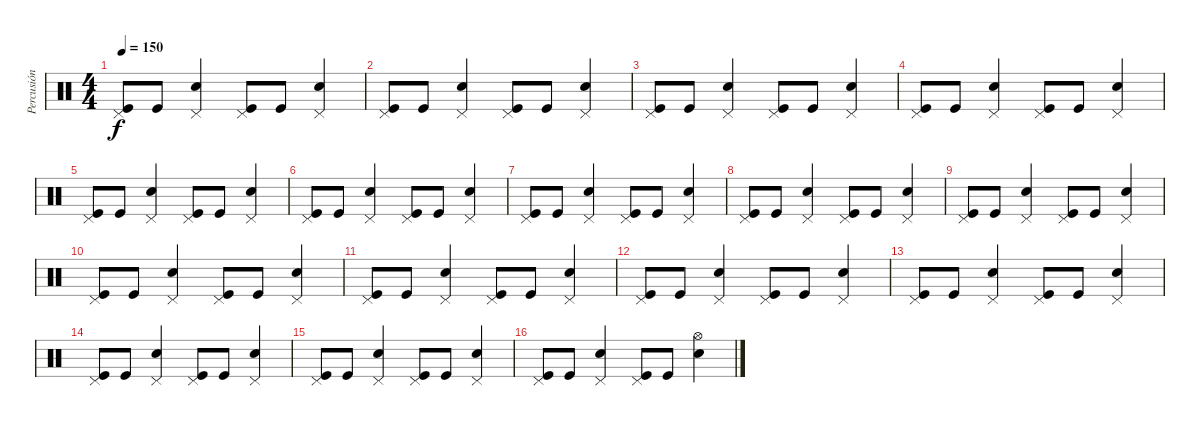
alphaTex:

\track ("Percusión" "Percusión") {instrument percussion}
\staff {score}
\articulation defaults
\ts (4 4)
\tempo 150
\clef neutral
\ks c
("Pedal Hi-Hat (hit)" "Kick (hit)").8{dy f} "Kick (hit)".8 ("Pedal Hi-Hat (hit)" "Snare (hit) 2").4 ("Pedal Hi-Hat (hit)" "Kick (hit)").8 "Kick (hit)".8 ("Pedal Hi-Hat (hit)" "Snare (hit) 2").4 |
("Pedal Hi-Hat (hit)" "Kick (hit)").8 "Kick (hit)".8 ("Pedal Hi-Hat (hit)" "Snare (hit) 2").4 ("Pedal Hi-Hat (hit)" "Kick (hit)").8 "Kick (hit)".8 ("Pedal Hi-Hat (hit)" "Snare (hit) 2").4 |
("Pedal Hi-Hat (hit)" "Kick (hit)").8 "Kick (hit)".8 ("Pedal Hi-Hat (hit)" "Snare (hit) 2").4 ("Pedal Hi-Hat (hit)" "Kick (hit)").8 "Kick (hit)".8 ("Pedal Hi-Hat (hit)" "Snare (hit) 2").4 |
("Pedal Hi-Hat (hit)" "Kick (hit)").8 "Kick (hit)".8 ("Pedal Hi-Hat (hit)" "Snare (hit) 2").4 ("Pedal Hi-Hat (hit)" "Kick (hit)").8 "Kick (hit)".8 ("Pedal Hi-Hat (hit)" "Snare (hit) 2").4 |
("Pedal Hi-Hat (hit)" "Kick (hit)").8 "Kick (hit)".8 ("Pedal Hi-Hat (hit)" "Snare (hit) 2").4 ("Pedal Hi-Hat (hit)" "Kick (hit)").8 "Kick (hit)".8 ("Pedal Hi-Hat (hit)" "Snare (hit) 2").4 |
("Pedal Hi-Hat (hit)" "Kick (hit)").8 "Kick (hit)".8 ("Pedal Hi-Hat (hit)" "Snare (hit) 2").4 ("Pedal Hi-Hat (hit)" "Kick (hit)").8 "Kick (hit)".8 ("Pedal Hi-Hat (hit)" "Snare (hit) 2").4 |
("Pedal Hi-Hat (hit)" "Kick (hit)").8 "Kick (hit)".8 ("Pedal Hi-Hat (hit)" "Snare (hit) 2").4 ("Pedal Hi-Hat (hit)" "Kick (hit)").8 "Kick (hit)".8 ("Pedal Hi-Hat (hit)" "Snare (hit) 2").4 |
("Pedal Hi-Hat (hit)" "Kick (hit)").8 "Kick (hit)".8 ("Pedal Hi-Hat (hit)" "Snare (hit) 2").4 ("Pedal Hi-Hat (hit)" "Kick (hit)").8 "Kick (hit)".8 ("Pedal Hi-Hat (hit)" "Snare (hit) 2").4 |
("Pedal Hi-Hat (hit)" "Kick (hit)").8 "Kick (hit)".8 ("Pedal Hi-Hat (hit)" "Snare (hit) 2").4 ("Pedal Hi-Hat (hit)" "Kick (hit)").8 "Kick (hit)".8 ("Pedal Hi-Hat (hit)" "Snare (hit) 2").4 |
("Pedal Hi-Hat (hit)" "Kick (hit)").8 "Kick (hit)".8 ("Pedal Hi-Hat (hit)" "Snare (hit) 2").4 ("Pedal Hi-Hat (hit)" "Kick (hit)").8 "Kick (hit)".8 ("Pedal Hi-Hat (hit)" "Snare (hit) 2").4 |
("Pedal Hi-Hat (hit)" "Kick (hit)").8 "Kick (hit)".8 ("Pedal Hi-Hat (hit)" "Snare (hit) 2").4 ("Pedal Hi-Hat (hit)" "Kick (hit)").8 "Kick (hit)".8 ("Pedal Hi-Hat (hit)" "Snare (hit) 2").4 |
("Pedal Hi-Hat (hit)" "Kick (hit)").8 "Kick (hit)".8 ("Pedal Hi-Hat (hit)" "Snare (hit) 2").4 ("Pedal Hi-Hat (hit)" "Kick (hit)").8 "Kick (hit)".8 ("Pedal Hi-Hat (hit)" "Snare (hit) 2").4 |
("Pedal Hi-Hat (hit)" "Kick (hit)").8 "Kick (hit)".8 ("Pedal Hi-Hat (hit)" "Snare (hit) 2").4 ("Pedal Hi-Hat (hit)" "Kick (hit)").8 "Kick (hit)".8 ("Pedal Hi-Hat (hit)" "Snare (hit) 2").4 |
("Pedal Hi-Hat (hit)" "Kick (hit)").8 "Kick (hit)".8 ("Pedal Hi-Hat (hit)" "Snare (hit) 2").4 ("Pedal Hi-Hat (hit)" "Kick (hit)").8 "Kick (hit)".8 ("Pedal Hi-Hat (hit)" "Snare (hit) 2").4 |
("Pedal Hi-Hat (hit)" "Kick (hit)").8 "Kick (hit)".8 ("Pedal Hi-Hat (hit)" "Snare (hit) 2").4 ("Pedal Hi-Hat (hit)" "Kick (hit)").8 "Kick (hit)".8 ("Pedal Hi-Hat (hit)" "Snare (hit) 2").4 |
("Pedal Hi-Hat (hit)" "Kick (hit)").8 "Kick (hit)".8 ("Pedal Hi-Hat (hit)" "Snare (hit) 2").4 ("Pedal Hi-Hat (hit)" "Kick (hit)").8 "Kick (hit)".8 ("Hi-Hat (open)" "Snare (hit) 2").4
